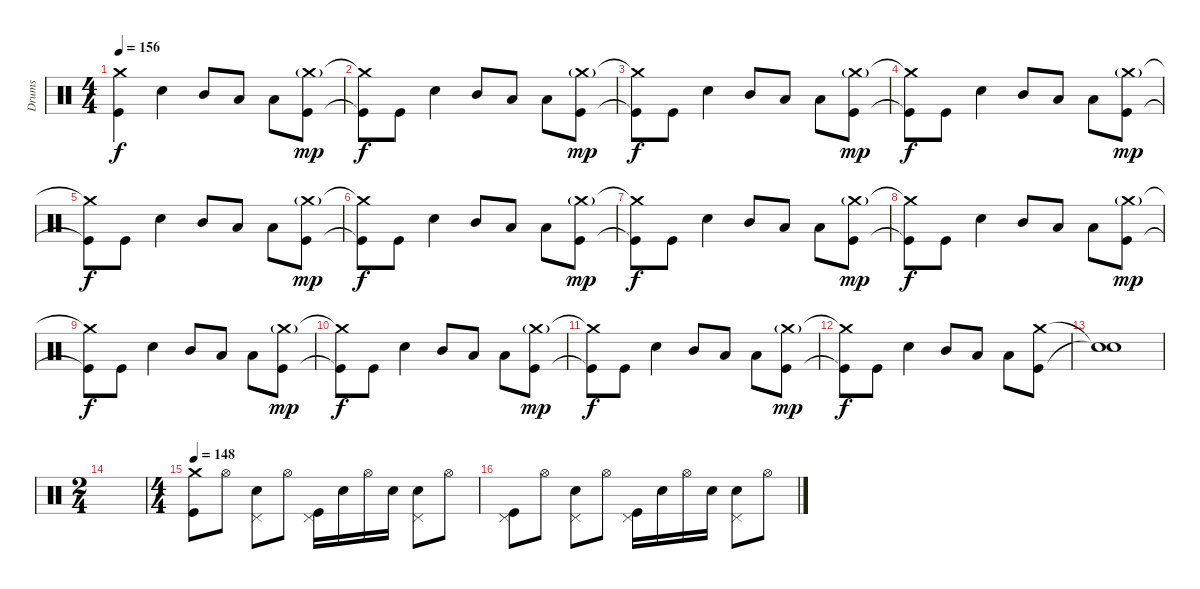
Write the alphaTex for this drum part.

\track ("Drums" "Drums") {instrument percussion}
\staff {score}
\articulation defaults
\ts (4 4)
\tempo 156
\clef neutral
\ks c
("Crash medium (hit)" "Kick (hit)").4{dy f} "Electric Snare (hit)".4 "Mid Tom (hit)".8 "Low Tom (hit)".8 "Low Tom (hit)".8 ("Crash medium (hit)"{g} "Kick (hit)").8{dy mp} |
("Crash medium (hit)"{t} "Kick (hit)"{t}).8{dy f} "Kick (hit)".8 "Electric Snare (hit)".4 "Mid Tom (hit)".8 "Low Tom (hit)".8 "Low Tom (hit)".8 ("Crash medium (hit)"{g} "Kick (hit)").8{dy mp} |
("Crash medium (hit)"{t} "Kick (hit)"{t}).8{dy f} "Kick (hit)".8 "Electric Snare (hit)".4 "Mid Tom (hit)".8 "Low Tom (hit)".8 "Low Tom (hit)".8 ("Crash medium (hit)"{g} "Kick (hit)").8{dy mp} |
("Crash medium (hit)"{t} "Kick (hit)"{t}).8{dy f} "Kick (hit)".8 "Electric Snare (hit)".4 "Mid Tom (hit)".8 "Low Tom (hit)".8 "Low Tom (hit)".8 ("Crash medium (hit)"{g} "Kick (hit)").8{dy mp} |
("Crash medium (hit)"{t} "Kick (hit)"{t}).8{dy f} "Kick (hit)".8 "Electric Snare (hit)".4 "Mid Tom (hit)".8 "Low Tom (hit)".8 "Low Tom (hit)".8 ("Crash medium (hit)"{g} "Kick (hit)").8{dy mp} |
("Crash medium (hit)"{t} "Kick (hit)"{t}).8{dy f} "Kick (hit)".8 "Electric Snare (hit)".4 "Mid Tom (hit)".8 "Low Tom (hit)".8 "Low Tom (hit)".8 ("Crash medium (hit)"{g} "Kick (hit)").8{dy mp} |
("Crash medium (hit)"{t} "Kick (hit)"{t}).8{dy f} "Kick (hit)".8 "Electric Snare (hit)".4 "Mid Tom (hit)".8 "Low Tom (hit)".8 "Low Tom (hit)".8 ("Crash medium (hit)"{g} "Kick (hit)").8{dy mp} |
("Crash medium (hit)"{t} "Kick (hit)"{t}).8{dy f} "Kick (hit)".8 "Electric Snare (hit)".4 "Mid Tom (hit)".8 "Low Tom (hit)".8 "Low Tom (hit)".8 ("Crash medium (hit)"{g} "Kick (hit)").8{dy mp} |
("Crash medium (hit)"{t} "Kick (hit)"{t}).8{dy f} "Kick (hit)".8 "Electric Snare (hit)".4 "Mid Tom (hit)".8 "Low Tom (hit)".8 "Low Tom (hit)".8 ("Crash medium (hit)"{g} "Kick (hit)").8{dy mp} |
("Crash medium (hit)"{t} "Kick (hit)"{t}).8{dy f} "Kick (hit)".8 "Electric Snare (hit)".4 "Mid Tom (hit)".8 "Low Tom (hit)".8 "Low Tom (hit)".8 ("Crash medium (hit)"{g} "Kick (hit)").8{dy mp} |
("Crash medium (hit)"{t} "Kick (hit)"{t}).8{dy f} "Kick (hit)".8 "Electric Snare (hit)".4 "Mid Tom (hit)".8 "Low Tom (hit)".8 "Low Tom (hit)".8 ("Crash medium (hit)"{g} "Kick (hit)").8{dy mp} |
("Crash medium (hit)"{t} "Kick (hit)"{t}).8{dy f} "Kick (hit)".8 "Electric Snare (hit)".4 "Mid Tom (hit)".8 "Low Tom (hit)".8 "Low Tom (hit)".8 ("Crash medium (hit)" "Kick (hit)").8 |
("Snare (hit)"{t} "Snare (hit)"{t}).1 |
\ts (2 4)
|
\ts (4 4)
\tempo 148
("Crash medium (hit)" "Kick (hit)").8 "Hi-Hat (open)".8 ("Pedal Hi-Hat (hit)" "Electric Snare (hit)").8 "Hi-Hat (open)".8 ("Pedal Hi-Hat (hit)" "Kick (hit)").16 "Electric Snare (hit)".16 "Hi-Hat (open)".16 "Electric Snare (hit)".16 ("Pedal Hi-Hat (hit)" "Electric Snare (hit)").8 "Hi-Hat (open)".8 |
("Pedal Hi-Hat (hit)" "Kick (hit)").8 "Hi-Hat (open)".8 ("Pedal Hi-Hat (hit)" "Electric Snare (hit)").8 "Hi-Hat (open)".8 ("Pedal Hi-Hat (hit)" "Kick (hit)").16 "Electric Snare (hit)".16 "Hi-Hat (open)".16 "Electric Snare (hit)".16 ("Pedal Hi-Hat (hit)" "Electric Snare (hit)").8 "Hi-Hat (open)".8
